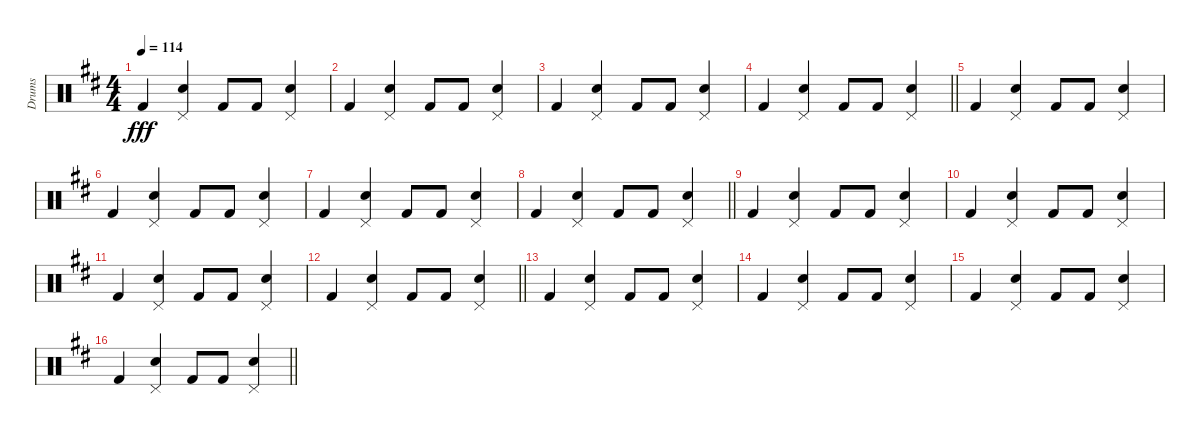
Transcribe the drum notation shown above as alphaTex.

\track ("Drums" "Drums") {instrument percussion}
\staff {score}
\articulation defaults
\ts (4 4)
\tempo 114
\clef neutral
\ks d "Kick (hit) 2".4{dy fff}
("Snare (hit) 2" "Pedal Hi-Hat (hit)").4 "Kick (hit) 2".8 "Kick (hit) 2".8 ("Snare (hit) 2" "Pedal Hi-Hat (hit)").4 |
"Kick (hit) 2".4 ("Snare (hit) 2" "Pedal Hi-Hat (hit)").4 "Kick (hit) 2".8 "Kick (hit) 2".8 ("Snare (hit) 2" "Pedal Hi-Hat (hit)").4 |
"Kick (hit) 2".4 ("Snare (hit) 2" "Pedal Hi-Hat (hit)").4 "Kick (hit) 2".8 "Kick (hit) 2".8 ("Snare (hit) 2" "Pedal Hi-Hat (hit)").4 |
\barLineRight lightlight "Kick (hit) 2".4
("Snare (hit) 2" "Pedal Hi-Hat (hit)").4 "Kick (hit) 2".8 "Kick (hit) 2".8 ("Snare (hit) 2" "Pedal Hi-Hat (hit)").4 |
"Kick (hit) 2".4 ("Snare (hit) 2" "Pedal Hi-Hat (hit)").4 "Kick (hit) 2".8 "Kick (hit) 2".8 ("Snare (hit) 2" "Pedal Hi-Hat (hit)").4 |
"Kick (hit) 2".4 ("Snare (hit) 2" "Pedal Hi-Hat (hit)").4 "Kick (hit) 2".8 "Kick (hit) 2".8 ("Snare (hit) 2" "Pedal Hi-Hat (hit)").4 |
"Kick (hit) 2".4 ("Snare (hit) 2" "Pedal Hi-Hat (hit)").4 "Kick (hit) 2".8 "Kick (hit) 2".8 ("Snare (hit) 2" "Pedal Hi-Hat (hit)").4 |
\barLineRight lightlight "Kick (hit) 2".4
("Snare (hit) 2" "Pedal Hi-Hat (hit)").4 "Kick (hit) 2".8 "Kick (hit) 2".8 ("Snare (hit) 2" "Pedal Hi-Hat (hit)").4 |
"Kick (hit) 2".4 ("Snare (hit) 2" "Pedal Hi-Hat (hit)").4 "Kick (hit) 2".8 "Kick (hit) 2".8 ("Snare (hit) 2" "Pedal Hi-Hat (hit)").4 |
"Kick (hit) 2".4 ("Snare (hit) 2" "Pedal Hi-Hat (hit)").4 "Kick (hit) 2".8 "Kick (hit) 2".8 ("Snare (hit) 2" "Pedal Hi-Hat (hit)").4 |
"Kick (hit) 2".4 ("Snare (hit) 2" "Pedal Hi-Hat (hit)").4 "Kick (hit) 2".8 "Kick (hit) 2".8 ("Snare (hit) 2" "Pedal Hi-Hat (hit)").4 |
\barLineRight lightlight "Kick (hit) 2".4
("Snare (hit) 2" "Pedal Hi-Hat (hit)").4 "Kick (hit) 2".8 "Kick (hit) 2".8 ("Snare (hit) 2" "Pedal Hi-Hat (hit)").4 |
"Kick (hit) 2".4 ("Snare (hit) 2" "Pedal Hi-Hat (hit)").4 "Kick (hit) 2".8 "Kick (hit) 2".8 ("Snare (hit) 2" "Pedal Hi-Hat (hit)").4 |
"Kick (hit) 2".4 ("Snare (hit) 2" "Pedal Hi-Hat (hit)").4 "Kick (hit) 2".8 "Kick (hit) 2".8 ("Snare (hit) 2" "Pedal Hi-Hat (hit)").4 |
"Kick (hit) 2".4 ("Snare (hit) 2" "Pedal Hi-Hat (hit)").4 "Kick (hit) 2".8 "Kick (hit) 2".8 ("Snare (hit) 2" "Pedal Hi-Hat (hit)").4 |
\barLineRight lightlight "Kick (hit) 2".4
("Snare (hit) 2" "Pedal Hi-Hat (hit)").4 "Kick (hit) 2".8 "Kick (hit) 2".8 ("Snare (hit) 2" "Pedal Hi-Hat (hit)").4
